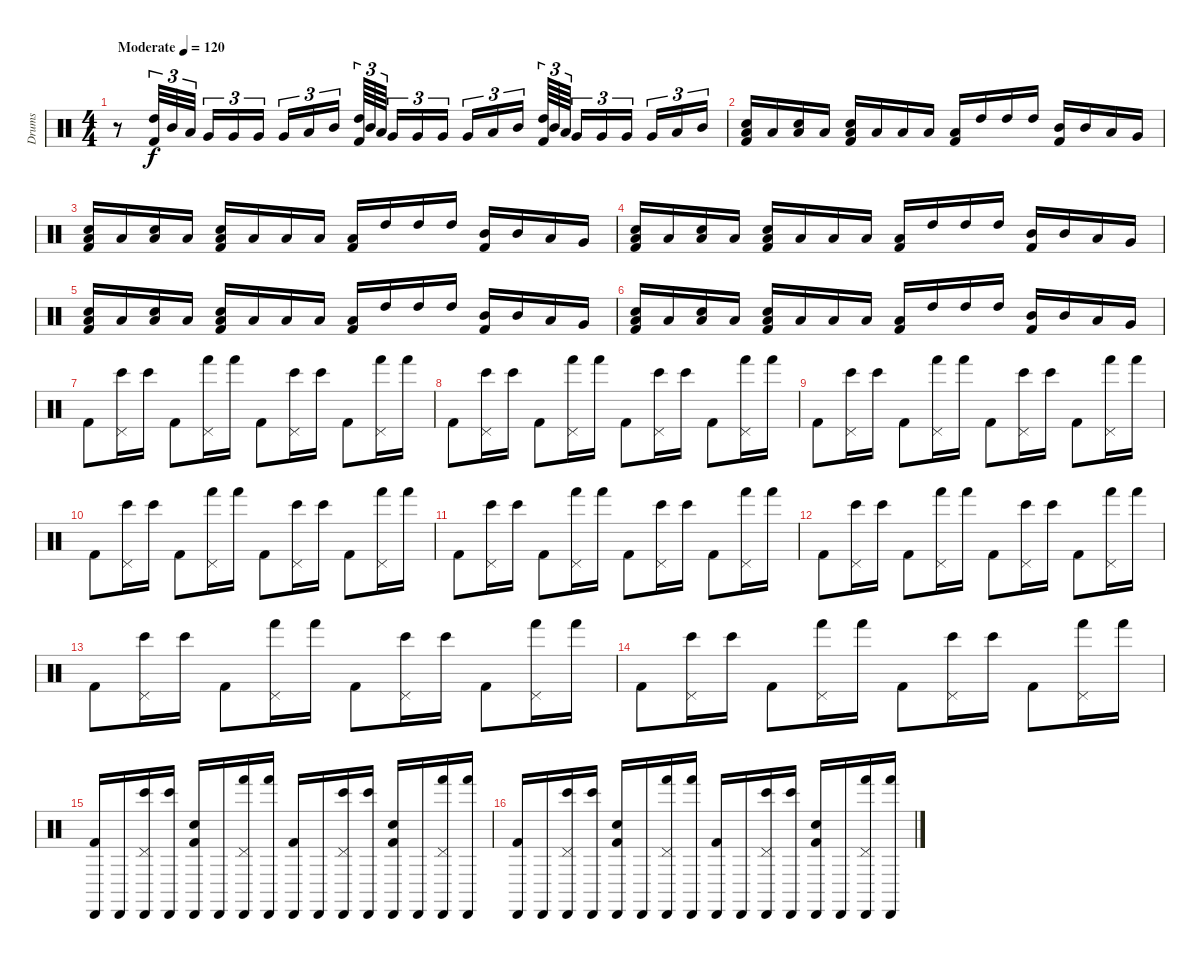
\track ("Drums" "Drums") {instrument percussion}
\staff {score}
\articulation defaults
\ts (4 4)
\tempo (120 "Moderate")
\clef neutral
\ks c
r.8{dy f} ("High Tom (hit)" "Kick (hit) 2").32{tu (3 2)} "Mid Tom (hit)".32{tu (3 2)} "Low Tom (hit)".32{tu (3 2) beam splitsecondary} "Very Low Tom (hit)".16{tu (3 2)} "Very Low Tom (hit)".16{tu (3 2)} "Very Low Tom (hit)".16{tu (3 2) beam splitsecondary} "Very Low Tom (hit)".16{tu (3 2)} "Low Tom (hit)".16{tu (3 2)} "Mid Tom (hit)".16{tu (3 2) beam splitsecondary} ("High Tom (hit)" "Kick (hit) 2").64{tu (3 2)} "Mid Tom (hit)".64{tu (3 2)} "Low Tom (hit)".64{tu (3 2) beam splitsecondary} "Very Low Tom (hit)".16{tu (3 2)} "Very Low Tom (hit)".16{tu (3 2)} "Very Low Tom (hit)".16{tu (3 2) beam splitsecondary} "Very Low Tom (hit)".16{tu (3 2)} "Low Tom (hit)".16{tu (3 2)} "Mid Tom (hit)".16{tu (3 2) beam splitsecondary} ("High Tom (hit)" "Kick (hit) 2").64{tu (3 2)} "Mid Tom (hit)".64{tu (3 2)} "Low Tom (hit)".64{tu (3 2)} "Very Low Tom (hit)".16{tu (3 2)} "Very Low Tom (hit)".16{tu (3 2)} "Very Low Tom (hit)".16{tu (3 2) beam splitsecondary} "Very Low Tom (hit)".16{tu (3 2)} "Low Tom (hit)".16{tu (3 2)} "Mid Tom (hit)".16{tu (3 2)} |
("Low Floor Tom (hit)" "Hand Clap (hit)" "Kick (hit) 2").16 "Low Floor Tom (hit)".16 ("Low Floor Tom (hit)" "Hand Clap (hit)").16 "Low Floor Tom (hit)".16 ("Low Floor Tom (hit)" "Hand Clap (hit)" "Kick (hit) 2").16 "Low Floor Tom (hit)".16 "Low Floor Tom (hit)".16 "Low Floor Tom (hit)".16 ("Low Floor Tom (hit)" "Kick (hit) 2").16 "High Tom (hit)".16 "High Tom (hit)".16 "High Tom (hit)".16 ("Mid Tom (hit)" "Kick (hit) 2").16 "Mid Tom (hit)".16 "Low Tom (hit)".16 "Very Low Tom (hit)".16 |
("Low Floor Tom (hit)" "Hand Clap (hit)" "Kick (hit) 2").16 "Low Floor Tom (hit)".16 ("Low Floor Tom (hit)" "Hand Clap (hit)").16 "Low Floor Tom (hit)".16 ("Low Floor Tom (hit)" "Hand Clap (hit)" "Kick (hit) 2").16 "Low Floor Tom (hit)".16 "Low Floor Tom (hit)".16 "Low Floor Tom (hit)".16 ("Low Floor Tom (hit)" "Kick (hit) 2").16 "High Tom (hit)".16 "High Tom (hit)".16 "High Tom (hit)".16 ("Mid Tom (hit)" "Kick (hit) 2").16 "Mid Tom (hit)".16 "Low Tom (hit)".16 "Very Low Tom (hit)".16 |
("Low Floor Tom (hit)" "Hand Clap (hit)" "Kick (hit) 2").16 "Low Floor Tom (hit)".16 ("Low Floor Tom (hit)" "Hand Clap (hit)").16 "Low Floor Tom (hit)".16 ("Low Floor Tom (hit)" "Hand Clap (hit)" "Kick (hit) 2").16 "Low Floor Tom (hit)".16 "Low Floor Tom (hit)".16 "Low Floor Tom (hit)".16 ("Low Floor Tom (hit)" "Kick (hit) 2").16 "High Tom (hit)".16 "High Tom (hit)".16 "High Tom (hit)".16 ("Mid Tom (hit)" "Kick (hit) 2").16 "Mid Tom (hit)".16 "Low Tom (hit)".16 "Very Low Tom (hit)".16 |
("Low Floor Tom (hit)" "Hand Clap (hit)" "Kick (hit) 2").16 "Low Floor Tom (hit)".16 ("Low Floor Tom (hit)" "Hand Clap (hit)").16 "Low Floor Tom (hit)".16 ("Low Floor Tom (hit)" "Hand Clap (hit)" "Kick (hit) 2").16 "Low Floor Tom (hit)".16 "Low Floor Tom (hit)".16 "Low Floor Tom (hit)".16 ("Low Floor Tom (hit)" "Kick (hit) 2").16 "High Tom (hit)".16 "High Tom (hit)".16 "High Tom (hit)".16 ("Mid Tom (hit)" "Kick (hit) 2").16 "Mid Tom (hit)".16 "Low Tom (hit)".16 "Very Low Tom (hit)".16 |
("Low Floor Tom (hit)" "Hand Clap (hit)" "Kick (hit) 2").16 "Low Floor Tom (hit)".16 ("Low Floor Tom (hit)" "Hand Clap (hit)").16 "Low Floor Tom (hit)".16 ("Low Floor Tom (hit)" "Hand Clap (hit)" "Kick (hit) 2").16 "Low Floor Tom (hit)".16 "Low Floor Tom (hit)".16 "Low Floor Tom (hit)".16 ("Low Floor Tom (hit)" "Kick (hit) 2").16 "High Tom (hit)".16 "High Tom (hit)".16 "High Tom (hit)".16 ("Mid Tom (hit)" "Kick (hit) 2").16 "Mid Tom (hit)".16 "Low Tom (hit)".16 "Very Low Tom (hit)".16 |
"Kick (hit) 2".8 ("Pedal Hi-Hat (hit)" "Bongo High (hit)").16 "Bongo High (hit)".16 "Kick (hit) 2".8 ("Pedal Hi-Hat (hit)" "Hand (hit)").16 "Hand (hit)".16 "Kick (hit) 2".8 ("Pedal Hi-Hat (hit)" "Bongo High (hit)").16 "Bongo High (hit)".16 "Kick (hit) 2".8 ("Pedal Hi-Hat (hit)" "Hand (hit)").16 "Hand (hit)".16 |
"Kick (hit) 2".8 ("Pedal Hi-Hat (hit)" "Bongo High (hit)").16 "Bongo High (hit)".16 "Kick (hit) 2".8 ("Pedal Hi-Hat (hit)" "Hand (hit)").16 "Hand (hit)".16 "Kick (hit) 2".8 ("Pedal Hi-Hat (hit)" "Bongo High (hit)").16 "Bongo High (hit)".16 "Kick (hit) 2".8 ("Pedal Hi-Hat (hit)" "Hand (hit)").16 "Hand (hit)".16 |
"Kick (hit) 2".8 ("Pedal Hi-Hat (hit)" "Bongo High (hit)").16 "Bongo High (hit)".16 "Kick (hit) 2".8 ("Pedal Hi-Hat (hit)" "Hand (hit)").16 "Hand (hit)".16 "Kick (hit) 2".8 ("Pedal Hi-Hat (hit)" "Bongo High (hit)").16 "Bongo High (hit)".16 "Kick (hit) 2".8 ("Pedal Hi-Hat (hit)" "Hand (hit)").16 "Hand (hit)".16 |
"Kick (hit) 2".8 ("Pedal Hi-Hat (hit)" "Bongo High (hit)").16 "Bongo High (hit)".16 "Kick (hit) 2".8 ("Pedal Hi-Hat (hit)" "Hand (hit)").16 "Hand (hit)".16 "Kick (hit) 2".8 ("Pedal Hi-Hat (hit)" "Bongo High (hit)").16 "Bongo High (hit)".16 "Kick (hit) 2".8 ("Pedal Hi-Hat (hit)" "Hand (hit)").16 "Hand (hit)".16 |
"Kick (hit) 2".8 ("Pedal Hi-Hat (hit)" "Bongo High (hit)").16 "Bongo High (hit)".16 "Kick (hit) 2".8 ("Pedal Hi-Hat (hit)" "Hand (hit)").16 "Hand (hit)".16 "Kick (hit) 2".8 ("Pedal Hi-Hat (hit)" "Bongo High (hit)").16 "Bongo High (hit)".16 "Kick (hit) 2".8 ("Pedal Hi-Hat (hit)" "Hand (hit)").16 "Hand (hit)".16 |
"Kick (hit) 2".8 ("Pedal Hi-Hat (hit)" "Bongo High (hit)").16 "Bongo High (hit)".16 "Kick (hit) 2".8 ("Pedal Hi-Hat (hit)" "Hand (hit)").16 "Hand (hit)".16 "Kick (hit) 2".8 ("Pedal Hi-Hat (hit)" "Bongo High (hit)").16 "Bongo High (hit)".16 "Kick (hit) 2".8 ("Pedal Hi-Hat (hit)" "Hand (hit)").16 "Hand (hit)".16 |
"Kick (hit) 2".8 ("Pedal Hi-Hat (hit)" "Bongo High (hit)").16 "Bongo High (hit)".16 "Kick (hit) 2".8 ("Pedal Hi-Hat (hit)" "Hand (hit)").16 "Hand (hit)".16 "Kick (hit) 2".8 ("Pedal Hi-Hat (hit)" "Bongo High (hit)").16 "Bongo High (hit)".16 "Kick (hit) 2".8 ("Pedal Hi-Hat (hit)" "Hand (hit)").16 "Hand (hit)".16 |
"Kick (hit) 2".8 ("Pedal Hi-Hat (hit)" "Bongo High (hit)").16 "Bongo High (hit)".16 "Kick (hit) 2".8 ("Pedal Hi-Hat (hit)" "Hand (hit)").16 "Hand (hit)".16 "Kick (hit) 2".8 ("Pedal Hi-Hat (hit)" "Bongo High (hit)").16 "Bongo High (hit)".16 "Kick (hit) 2".8 ("Pedal Hi-Hat (hit)" "Hand (hit)").16 "Hand (hit)".16 |
("Cabasa (hit)" "Kick (hit) 2").16 "Cabasa (hit)".16 ("Cabasa (hit)" "Pedal Hi-Hat (hit)" "Bongo High (hit)").16 ("Cabasa (hit)" "Bongo High (hit)").16 ("Hand Clap (hit)" "Cabasa (hit)" "Kick (hit) 2").16 "Cabasa (hit)".16 ("Cabasa (hit)" "Pedal Hi-Hat (hit)" "Hand (hit)").16 ("Cabasa (hit)" "Hand (hit)").16 ("Cabasa (hit)" "Kick (hit) 2").16 "Cabasa (hit)".16 ("Cabasa (hit)" "Pedal Hi-Hat (hit)" "Bongo High (hit)").16 ("Cabasa (hit)" "Bongo High (hit)").16 ("Hand Clap (hit)" "Cabasa (hit)" "Kick (hit) 2").16 "Cabasa (hit)".16 ("Cabasa (hit)" "Pedal Hi-Hat (hit)" "Hand (hit)").16 ("Cabasa (hit)" "Hand (hit)").16 |
("Cabasa (hit)" "Kick (hit) 2").16 "Cabasa (hit)".16 ("Cabasa (hit)" "Pedal Hi-Hat (hit)" "Bongo High (hit)").16 ("Cabasa (hit)" "Bongo High (hit)").16 ("Hand Clap (hit)" "Cabasa (hit)" "Kick (hit) 2").16 "Cabasa (hit)".16 ("Cabasa (hit)" "Pedal Hi-Hat (hit)" "Hand (hit)").16 ("Cabasa (hit)" "Hand (hit)").16 ("Cabasa (hit)" "Kick (hit) 2").16 "Cabasa (hit)".16 ("Cabasa (hit)" "Pedal Hi-Hat (hit)" "Bongo High (hit)").16 ("Cabasa (hit)" "Bongo High (hit)").16 ("Hand Clap (hit)" "Cabasa (hit)" "Kick (hit) 2").16 "Cabasa (hit)".16 ("Cabasa (hit)" "Pedal Hi-Hat (hit)" "Hand (hit)").16 ("Cabasa (hit)" "Hand (hit)").16
